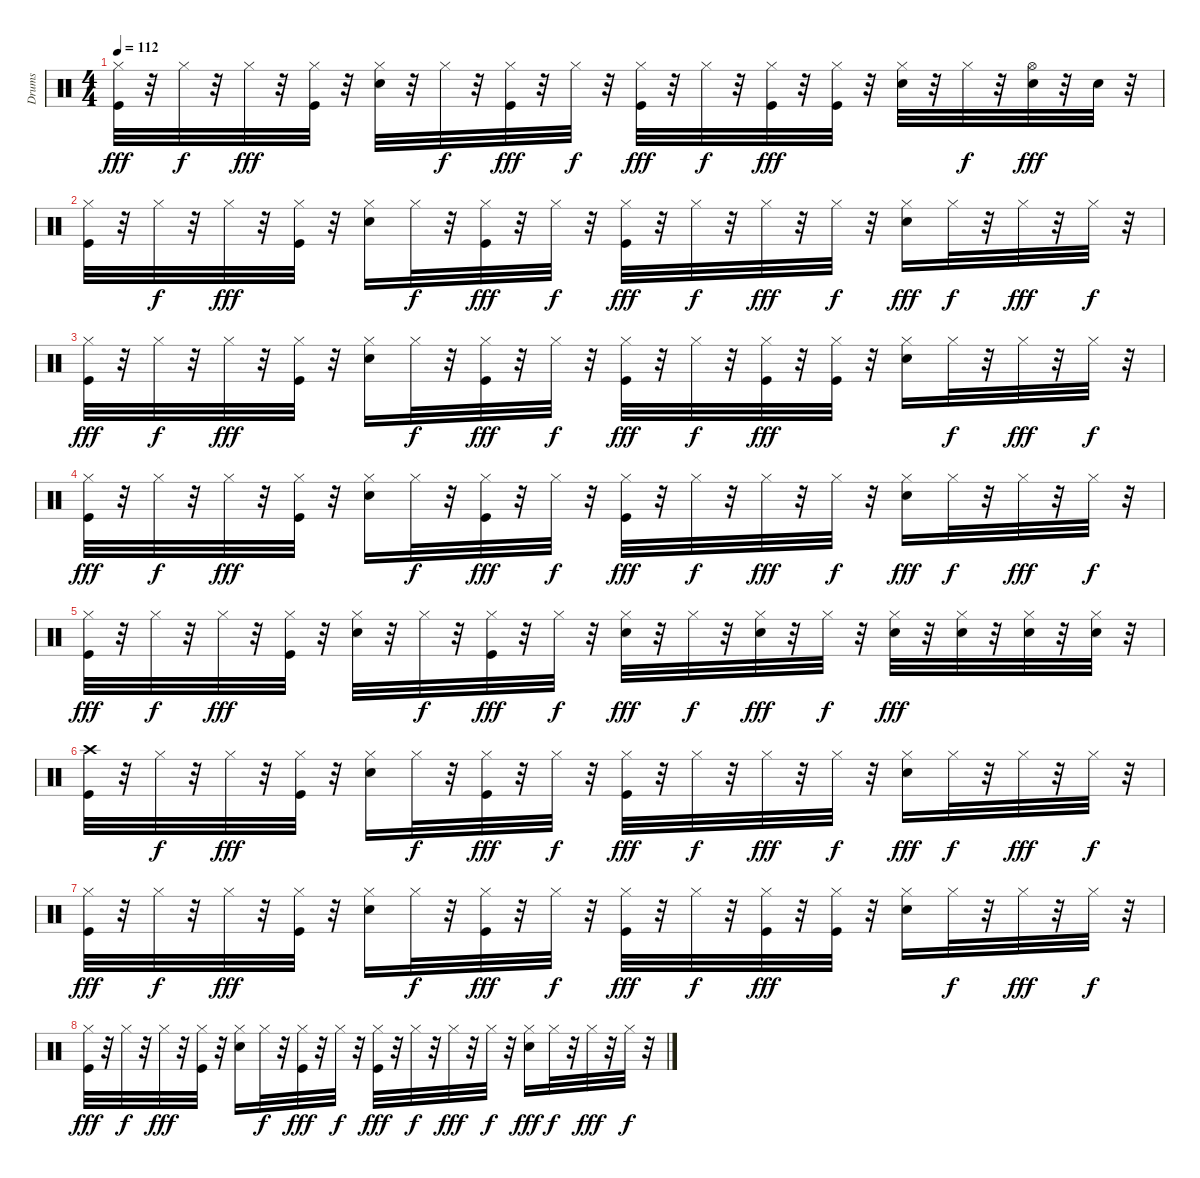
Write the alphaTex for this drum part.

\track ("Drums" "Drums") {instrument percussion}
\staff {score}
\articulation defaults
\ts (4 4)
\tempo 112
\clef neutral
\ks c
("Kick (hit)" "Hi-Hat (closed)").32{dy fff} r.32 "Hi-Hat (closed)".32{dy f} r.32 "Hi-Hat (closed)".32{dy fff} r.32 ("Kick (hit)" "Hi-Hat (closed)").32 r.32 ("Snare (hit) 2" "Hi-Hat (closed)").32 r.32 "Hi-Hat (closed)".32{dy f} r.32 ("Kick (hit)" "Hi-Hat (closed)").32{dy fff} r.32 "Hi-Hat (closed)".32{dy f} r.32 ("Kick (hit)" "Hi-Hat (closed)").32{dy fff} r.32 "Hi-Hat (closed)".32{dy f} r.32 ("Kick (hit)" "Hi-Hat (closed)").32{dy fff} r.32 ("Kick (hit)" "Hi-Hat (closed)").32 r.32 ("Snare (hit) 2" "Hi-Hat (closed)").32 r.32 "Hi-Hat (closed)".32{dy f} r.32 ("Snare (hit) 2" "Hi-Hat (open)").32{dy fff} r.32 "Snare (hit) 2".32 r.32 |
("Kick (hit)" "Hi-Hat (closed)").32 r.32 "Hi-Hat (closed)".32{dy f} r.32 "Hi-Hat (closed)".32{dy fff} r.32 ("Kick (hit)" "Hi-Hat (closed)").32 r.32 ("Snare (hit) 2" "Hi-Hat (closed)").16 "Hi-Hat (closed)".32{dy f} r.32 ("Kick (hit)" "Hi-Hat (closed)").32{dy fff} r.32 "Hi-Hat (closed)".32{dy f} r.32 ("Kick (hit)" "Hi-Hat (closed)").32{dy fff} r.32 "Hi-Hat (closed)".32{dy f} r.32 "Hi-Hat (closed)".32{dy fff} r.32 "Hi-Hat (closed)".32{dy f} r.32 ("Snare (hit) 2" "Hi-Hat (closed)").16{dy fff} "Hi-Hat (closed)".32{dy f} r.32 "Hi-Hat (closed)".32{dy fff} r.32 "Hi-Hat (closed)".32{dy f} r.32 |
("Kick (hit)" "Hi-Hat (closed)").32{dy fff} r.32 "Hi-Hat (closed)".32{dy f} r.32 "Hi-Hat (closed)".32{dy fff} r.32 ("Kick (hit)" "Hi-Hat (closed)").32 r.32 ("Snare (hit) 2" "Hi-Hat (closed)").16 "Hi-Hat (closed)".32{dy f} r.32 ("Kick (hit)" "Hi-Hat (closed)").32{dy fff} r.32 "Hi-Hat (closed)".32{dy f} r.32 ("Kick (hit)" "Hi-Hat (closed)").32{dy fff} r.32 "Hi-Hat (closed)".32{dy f} r.32 ("Kick (hit)" "Hi-Hat (closed)").32{dy fff} r.32 ("Kick (hit)" "Hi-Hat (closed)").32 r.32 ("Snare (hit) 2" "Hi-Hat (closed)").16 "Hi-Hat (closed)".32{dy f} r.32 "Hi-Hat (closed)".32{dy fff} r.32 "Hi-Hat (closed)".32{dy f} r.32 |
("Kick (hit)" "Hi-Hat (closed)").32{dy fff} r.32 "Hi-Hat (closed)".32{dy f} r.32 "Hi-Hat (closed)".32{dy fff} r.32 ("Kick (hit)" "Hi-Hat (closed)").32 r.32 ("Snare (hit) 2" "Hi-Hat (closed)").16 "Hi-Hat (closed)".32{dy f} r.32 ("Kick (hit)" "Hi-Hat (closed)").32{dy fff} r.32 "Hi-Hat (closed)".32{dy f} r.32 ("Kick (hit)" "Hi-Hat (closed)").32{dy fff} r.32 "Hi-Hat (closed)".32{dy f} r.32 "Hi-Hat (closed)".32{dy fff} r.32 "Hi-Hat (closed)".32{dy f} r.32 ("Snare (hit) 2" "Hi-Hat (closed)").16{dy fff} "Hi-Hat (closed)".32{dy f} r.32 "Hi-Hat (closed)".32{dy fff} r.32 "Hi-Hat (closed)".32{dy f} r.32 |
("Kick (hit)" "Hi-Hat (closed)").32{dy fff} r.32 "Hi-Hat (closed)".32{dy f} r.32 "Hi-Hat (closed)".32{dy fff} r.32 ("Kick (hit)" "Hi-Hat (closed)").32 r.32 ("Snare (hit) 2" "Hi-Hat (closed)").32 r.32 "Hi-Hat (closed)".32{dy f} r.32 ("Kick (hit)" "Hi-Hat (closed)").32{dy fff} r.32 "Hi-Hat (closed)".32{dy f} r.32 ("Snare (hit) 2" "Hi-Hat (closed)").32{dy fff} r.32 "Hi-Hat (closed)".32{dy f} r.32 ("Snare (hit) 2" "Hi-Hat (closed)").32{dy fff} r.32 "Hi-Hat (closed)".32{dy f} r.32 ("Snare (hit) 2" "Hi-Hat (closed)").32{dy fff} r.32 ("Snare (hit) 2" "Hi-Hat (closed)").32 r.32 ("Snare (hit) 2" "Hi-Hat (closed)").32 r.32 ("Snare (hit) 2" "Hi-Hat (closed)").32 r.32 |
("Kick (hit)" "Crash high (hit)").32 r.32 "Hi-Hat (closed)".32{dy f} r.32 "Hi-Hat (closed)".32{dy fff} r.32 ("Kick (hit)" "Hi-Hat (closed)").32 r.32 ("Snare (hit) 2" "Hi-Hat (closed)").16 "Hi-Hat (closed)".32{dy f} r.32 ("Kick (hit)" "Hi-Hat (closed)").32{dy fff} r.32 "Hi-Hat (closed)".32{dy f} r.32 ("Kick (hit)" "Hi-Hat (closed)").32{dy fff} r.32 "Hi-Hat (closed)".32{dy f} r.32 "Hi-Hat (closed)".32{dy fff} r.32 "Hi-Hat (closed)".32{dy f} r.32 ("Snare (hit) 2" "Hi-Hat (closed)").16{dy fff} "Hi-Hat (closed)".32{dy f} r.32 "Hi-Hat (closed)".32{dy fff} r.32 "Hi-Hat (closed)".32{dy f} r.32 |
("Kick (hit)" "Hi-Hat (closed)").32{dy fff} r.32 "Hi-Hat (closed)".32{dy f} r.32 "Hi-Hat (closed)".32{dy fff} r.32 ("Kick (hit)" "Hi-Hat (closed)").32 r.32 ("Snare (hit) 2" "Hi-Hat (closed)").16 "Hi-Hat (closed)".32{dy f} r.32 ("Kick (hit)" "Hi-Hat (closed)").32{dy fff} r.32 "Hi-Hat (closed)".32{dy f} r.32 ("Kick (hit)" "Hi-Hat (closed)").32{dy fff} r.32 "Hi-Hat (closed)".32{dy f} r.32 ("Kick (hit)" "Hi-Hat (closed)").32{dy fff} r.32 ("Kick (hit)" "Hi-Hat (closed)").32 r.32 ("Snare (hit) 2" "Hi-Hat (closed)").16 "Hi-Hat (closed)".32{dy f} r.32 "Hi-Hat (closed)".32{dy fff} r.32 "Hi-Hat (closed)".32{dy f} r.32 |
("Kick (hit)" "Hi-Hat (closed)").32{dy fff} r.32 "Hi-Hat (closed)".32{dy f} r.32 "Hi-Hat (closed)".32{dy fff} r.32 ("Kick (hit)" "Hi-Hat (closed)").32 r.32 ("Snare (hit) 2" "Hi-Hat (closed)").16 "Hi-Hat (closed)".32{dy f} r.32 ("Kick (hit)" "Hi-Hat (closed)").32{dy fff} r.32 "Hi-Hat (closed)".32{dy f} r.32 ("Kick (hit)" "Hi-Hat (closed)").32{dy fff} r.32 "Hi-Hat (closed)".32{dy f} r.32 "Hi-Hat (closed)".32{dy fff} r.32 "Hi-Hat (closed)".32{dy f} r.32 ("Snare (hit) 2" "Hi-Hat (closed)").16{dy fff} "Hi-Hat (closed)".32{dy f} r.32 "Hi-Hat (closed)".32{dy fff} r.32 "Hi-Hat (closed)".32{dy f} r.32
